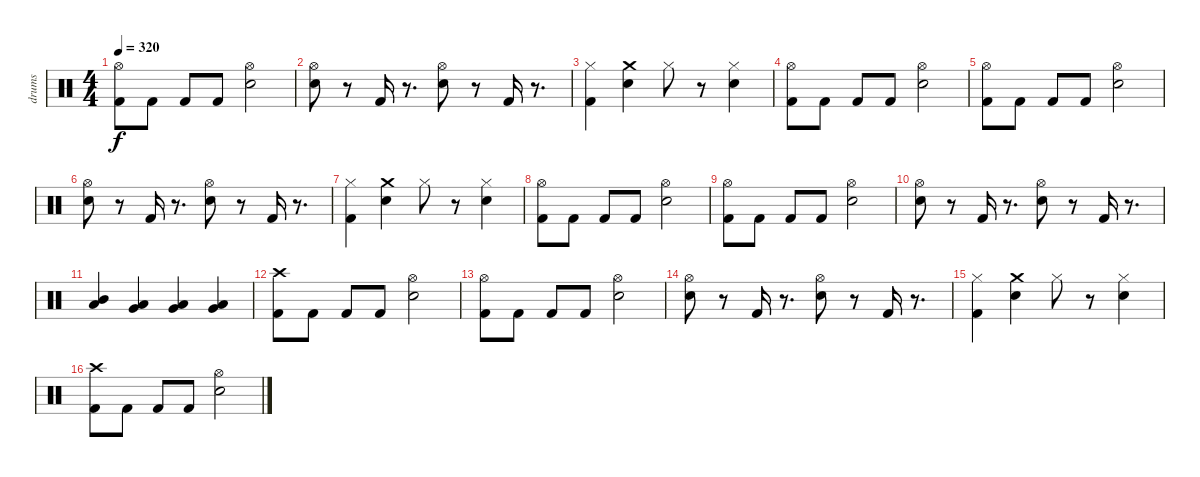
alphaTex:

\track ("drums" "drums") {instrument percussion}
\staff {score}
\articulation defaults
\ts (4 4)
\tempo 320
\clef neutral
\ks c
("Hi-Hat (open)" "Kick (hit) 2").8{dy f} "Kick (hit) 2".8 "Kick (hit) 2".8 "Kick (hit) 2".8 ("Hi-Hat (open)" "Snare (hit) 2").2 |
("Hi-Hat (open)" "Snare (hit) 2").8 r.8 "Kick (hit) 2".16 r.8{d} ("Hi-Hat (open)" "Snare (hit) 2").8 r.8 "Kick (hit) 2".16 r.8{d} |
("Hi-Hat (closed)" "Kick (hit) 2").4 ("Snare (hit) 2" "Crash medium (hit)").4 "Hi-Hat (closed)".8 r.8 ("Hi-Hat (closed)" "Snare (hit) 2").4 |
("Hi-Hat (open)" "Kick (hit) 2").8 "Kick (hit) 2".8 "Kick (hit) 2".8 "Kick (hit) 2".8 ("Hi-Hat (open)" "Snare (hit) 2").2 |
("Hi-Hat (open)" "Kick (hit) 2").8 "Kick (hit) 2".8 "Kick (hit) 2".8 "Kick (hit) 2".8 ("Hi-Hat (open)" "Snare (hit) 2").2 |
("Hi-Hat (open)" "Snare (hit) 2").8 r.8 "Kick (hit) 2".16 r.8{d} ("Hi-Hat (open)" "Snare (hit) 2").8 r.8 "Kick (hit) 2".16 r.8{d} |
("Hi-Hat (closed)" "Kick (hit) 2").4 ("Snare (hit) 2" "Crash medium (hit)").4 "Hi-Hat (closed)".8 r.8 ("Hi-Hat (closed)" "Snare (hit) 2").4 |
("Hi-Hat (open)" "Kick (hit) 2").8 "Kick (hit) 2".8 "Kick (hit) 2".8 "Kick (hit) 2".8 ("Hi-Hat (open)" "Snare (hit) 2").2 |
("Hi-Hat (open)" "Kick (hit) 2").8 "Kick (hit) 2".8 "Kick (hit) 2".8 "Kick (hit) 2".8 ("Hi-Hat (open)" "Snare (hit) 2").2 |
("Hi-Hat (open)" "Snare (hit) 2").8 r.8 "Kick (hit) 2".16 r.8{d} ("Hi-Hat (open)" "Snare (hit) 2").8 r.8 "Kick (hit) 2".16 r.8{d} |
("Mid Tom (hit)" "Low Tom (hit)").4 ("Low Tom (hit)" "Very Low Tom (hit)").4 ("Very Low Tom (hit)" "Low Floor Tom (hit)").4 ("Very Low Tom (hit)" "Low Floor Tom (hit)").4 |
("Crash high (hit)" "Kick (hit) 2").8 "Kick (hit) 2".8 "Kick (hit) 2".8 "Kick (hit) 2".8 ("Hi-Hat (open)" "Snare (hit) 2").2 |
("Hi-Hat (open)" "Kick (hit) 2").8 "Kick (hit) 2".8 "Kick (hit) 2".8 "Kick (hit) 2".8 ("Hi-Hat (open)" "Snare (hit) 2").2 |
("Hi-Hat (open)" "Snare (hit) 2").8 r.8 "Kick (hit) 2".16 r.8{d} ("Hi-Hat (open)" "Snare (hit) 2").8 r.8 "Kick (hit) 2".16 r.8{d} |
("Hi-Hat (closed)" "Kick (hit) 2").4 ("Snare (hit) 2" "Crash medium (hit)").4 "Hi-Hat (closed)".8 r.8 ("Hi-Hat (closed)" "Snare (hit) 2").4 |
("Crash high (hit)" "Kick (hit) 2").8 "Kick (hit) 2".8 "Kick (hit) 2".8 "Kick (hit) 2".8 ("Hi-Hat (open)" "Snare (hit) 2").2
